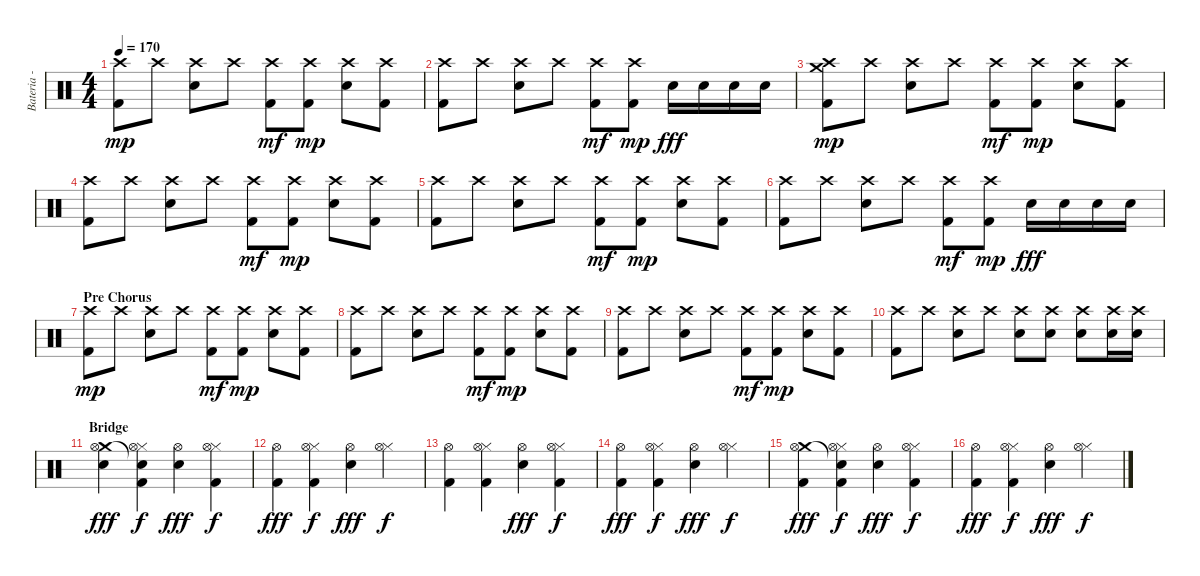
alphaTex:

\track ("Bateria - Larzon" "Bateria - ") {instrument percussion}
\staff {score}
\articulation defaults
\ts (4 4)
\tempo 170
\clef neutral
\ks c
("Kick (hit) 2" "Crash high (hit)").8{dy mp} "Crash high (hit)".8 ("Snare (hit) 2" "Crash high (hit)").8 "Crash high (hit)".8 ("Kick (hit) 2" "Crash high (hit)").8{dy mf} ("Kick (hit) 2" "Crash high (hit)").8{dy mp} ("Snare (hit) 2" "Crash high (hit)").8 ("Kick (hit) 2" "Crash high (hit)").8 |
("Kick (hit) 2" "Crash high (hit)").8 "Crash high (hit)".8 ("Snare (hit) 2" "Crash high (hit)").8 "Crash high (hit)".8 ("Kick (hit) 2" "Crash high (hit)").8{dy mf} ("Kick (hit) 2" "Crash high (hit)").8{dy mp} "Snare (hit) 2".16{dy fff} "Snare (hit) 2".16 "Snare (hit) 2".16 "Snare (hit) 2".16 |
("Kick (hit) 2" "Crash medium (hit)" "Crash high (hit)").8{dy mp} "Crash high (hit)".8 ("Snare (hit) 2" "Crash high (hit)").8 "Crash high (hit)".8 ("Kick (hit) 2" "Crash high (hit)").8{dy mf} ("Kick (hit) 2" "Crash high (hit)").8{dy mp} ("Snare (hit) 2" "Crash high (hit)").8 ("Kick (hit) 2" "Crash high (hit)").8 |
("Kick (hit) 2" "Crash high (hit)").8 "Crash high (hit)".8 ("Snare (hit) 2" "Crash high (hit)").8 "Crash high (hit)".8 ("Kick (hit) 2" "Crash high (hit)").8{dy mf} ("Kick (hit) 2" "Crash high (hit)").8{dy mp} ("Snare (hit) 2" "Crash high (hit)").8 ("Kick (hit) 2" "Crash high (hit)").8 |
("Kick (hit) 2" "Crash high (hit)").8 "Crash high (hit)".8 ("Snare (hit) 2" "Crash high (hit)").8 "Crash high (hit)".8 ("Kick (hit) 2" "Crash high (hit)").8{dy mf} ("Kick (hit) 2" "Crash high (hit)").8{dy mp} ("Snare (hit) 2" "Crash high (hit)").8 ("Kick (hit) 2" "Crash high (hit)").8 |
("Kick (hit) 2" "Crash high (hit)").8 "Crash high (hit)".8 ("Snare (hit) 2" "Crash high (hit)").8 "Crash high (hit)".8 ("Kick (hit) 2" "Crash high (hit)").8{dy mf} ("Kick (hit) 2" "Crash high (hit)").8{dy mp} "Snare (hit) 2".16{dy fff} "Snare (hit) 2".16 "Snare (hit) 2".16 "Snare (hit) 2".16 |
\section ("" "Pre Chorus")
("Kick (hit) 2" "Crash high (hit)").8{dy mp} "Crash high (hit)".8 ("Snare (hit) 2" "Crash high (hit)").8 "Crash high (hit)".8 ("Kick (hit) 2" "Crash high (hit)").8{dy mf} ("Kick (hit) 2" "Crash high (hit)").8{dy mp} ("Snare (hit) 2" "Crash high (hit)").8 ("Kick (hit) 2" "Crash high (hit)").8 |
("Kick (hit) 2" "Crash high (hit)").8 "Crash high (hit)".8 ("Snare (hit) 2" "Crash high (hit)").8 "Crash high (hit)".8 ("Kick (hit) 2" "Crash high (hit)").8{dy mf} ("Kick (hit) 2" "Crash high (hit)").8{dy mp} ("Snare (hit) 2" "Crash high (hit)").8 ("Kick (hit) 2" "Crash high (hit)").8 |
("Kick (hit) 2" "Crash high (hit)").8 "Crash high (hit)".8 ("Snare (hit) 2" "Crash high (hit)").8 "Crash high (hit)".8 ("Kick (hit) 2" "Crash high (hit)").8{dy mf} ("Kick (hit) 2" "Crash high (hit)").8{dy mp} ("Snare (hit) 2" "Crash high (hit)").8 ("Kick (hit) 2" "Crash high (hit)").8 |
("Kick (hit) 2" "Crash high (hit)").8 "Crash high (hit)".8 ("Snare (hit) 2" "Crash high (hit)").8 "Crash high (hit)".8 ("Snare (hit) 2" "Crash high (hit)").8 ("Snare (hit) 2" "Crash high (hit)").8 ("Snare (hit) 2" "Crash high (hit)").8 ("Snare (hit) 2" "Crash high (hit)").16 ("Snare (hit) 2" "Crash high (hit)").16 |
\section ("" "Bridge")
("Snare (hit) 2" "Crash medium (hit)" "Hi-Hat (open)").4{dy fff} ("Kick (hit) 2" "Hi-Hat (closed)" "Snare (hit)"{t} "Hi-Hat (open)").4{dy f} ("Snare (hit) 2" "Hi-Hat (open)").4{dy fff} ("Kick (hit) 2" "Hi-Hat (closed)" "Hi-Hat (open)").4{dy f} |
("Kick (hit) 2" "Hi-Hat (open)").4{dy fff} ("Kick (hit) 2" "Hi-Hat (closed)" "Hi-Hat (open)").4{dy f} ("Snare (hit) 2" "Hi-Hat (open)").4{dy fff} ("Hi-Hat (closed)" "Hi-Hat (open)").4{dy f} |
("Kick (hit) 2" "Hi-Hat (open)").4 ("Kick (hit) 2" "Hi-Hat (closed)" "Hi-Hat (open)").4 ("Snare (hit) 2" "Hi-Hat (open)").4{dy fff} ("Kick (hit) 2" "Hi-Hat (closed)" "Hi-Hat (open)").4{dy f} |
("Kick (hit) 2" "Hi-Hat (open)").4{dy fff} ("Kick (hit) 2" "Hi-Hat (closed)" "Hi-Hat (open)").4{dy f} ("Snare (hit) 2" "Hi-Hat (open)").4{dy fff} ("Hi-Hat (closed)" "Hi-Hat (open)").4{dy f} |
("Kick (hit) 2" "Crash medium (hit)" "Hi-Hat (open)").4{dy fff} ("Kick (hit) 2" "Hi-Hat (closed)" "Snare (hit)"{t} "Hi-Hat (open)").4{dy f} ("Snare (hit) 2" "Hi-Hat (open)").4{dy fff} ("Kick (hit) 2" "Hi-Hat (closed)" "Hi-Hat (open)").4{dy f} |
("Kick (hit) 2" "Hi-Hat (open)").4{dy fff} ("Kick (hit) 2" "Hi-Hat (closed)" "Hi-Hat (open)").4{dy f} ("Snare (hit) 2" "Hi-Hat (open)").4{dy fff} ("Hi-Hat (closed)" "Hi-Hat (open)").4{dy f}
